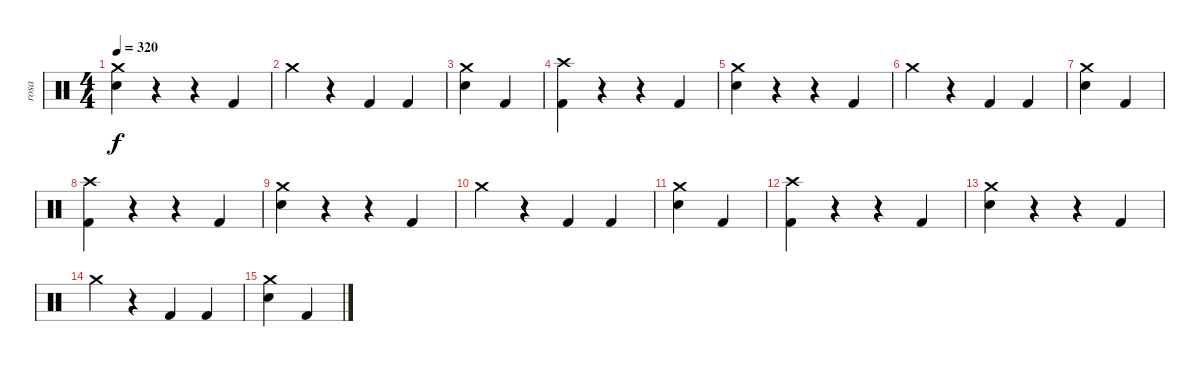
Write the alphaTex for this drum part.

\track ("rosa" "rosa") {instrument percussion}
\staff {score}
\articulation defaults
\ts (4 4)
\tempo 320
\clef neutral
\ks c
("Crash medium (hit)" "Electric Snare (hit)").4{dy f} r.4 r.4 "Kick (hit) 2".4 |
"Crash medium (hit)".4 r.4 "Kick (hit) 2".4 "Kick (hit) 2".4 |
("Crash medium (hit)" "Electric Snare (hit)").4 "Kick (hit) 2".4 |
("Crash high (hit)" "Kick (hit) 2").4 r.4 r.4 "Kick (hit) 2".4 |
("Crash medium (hit)" "Electric Snare (hit)").4 r.4 r.4 "Kick (hit) 2".4 |
"Crash medium (hit)".4 r.4 "Kick (hit) 2".4 "Kick (hit) 2".4 |
("Crash medium (hit)" "Electric Snare (hit)").4 "Kick (hit) 2".4 |
("Crash high (hit)" "Kick (hit) 2").4 r.4 r.4 "Kick (hit) 2".4 |
("Crash medium (hit)" "Electric Snare (hit)").4 r.4 r.4 "Kick (hit) 2".4 |
"Crash medium (hit)".4 r.4 "Kick (hit) 2".4 "Kick (hit) 2".4 |
("Crash medium (hit)" "Electric Snare (hit)").4 "Kick (hit) 2".4 |
("Crash high (hit)" "Kick (hit) 2").4 r.4 r.4 "Kick (hit) 2".4 |
("Crash medium (hit)" "Electric Snare (hit)").4 r.4 r.4 "Kick (hit) 2".4 |
"Crash medium (hit)".4 r.4 "Kick (hit) 2".4 "Kick (hit) 2".4 |
("Crash medium (hit)" "Electric Snare (hit)").4 "Kick (hit) 2".4
